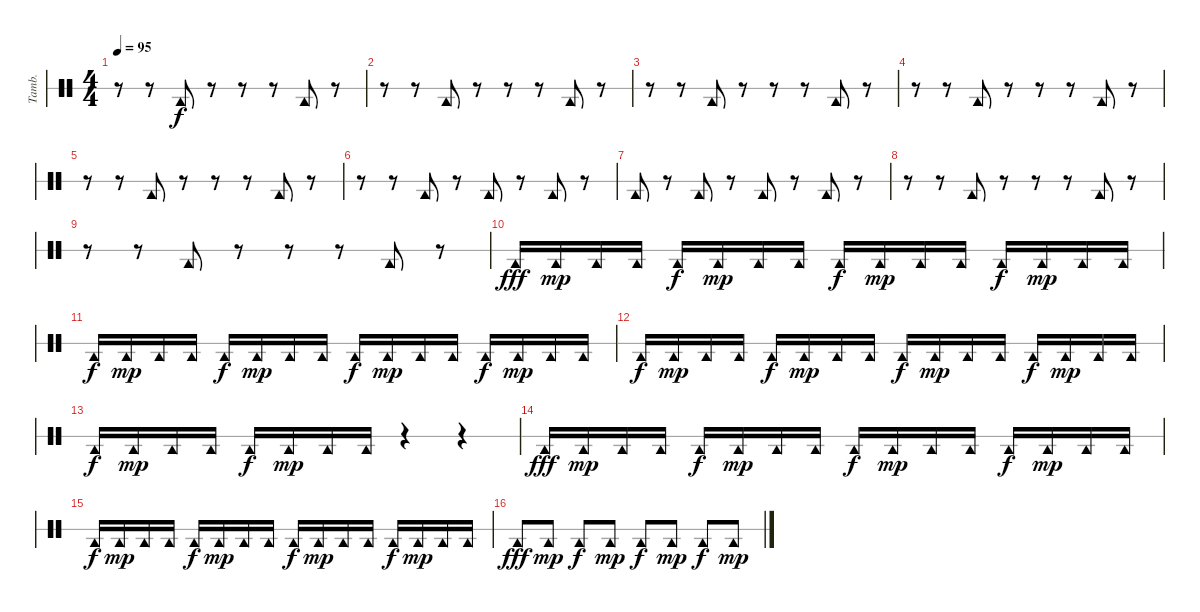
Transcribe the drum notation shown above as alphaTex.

\bracketExtendMode groupsimilarinstruments
\otherSystemsTrackNameOrientation horizontal
\track ("Tambourine" "Tamb.") {instrument percussion}
\staff {score 1}
\articulation defaults
\ts (4 4)
\tempo 95
\clef neutral
\ks c
r.8{dy f} r.8 "Tambourine (hit)".8 r.8 r.8 r.8 "Tambourine (hit)".8 r.8 |
r.8 r.8 "Tambourine (hit)".8 r.8 r.8 r.8 "Tambourine (hit)".8 r.8 |
r.8 r.8 "Tambourine (hit)".8 r.8 r.8 r.8 "Tambourine (hit)".8 r.8 |
r.8 r.8 "Tambourine (hit)".8 r.8 r.8 r.8 "Tambourine (hit)".8 r.8 |
r.8 r.8 "Tambourine (hit)".8 r.8 r.8 r.8 "Tambourine (hit)".8 r.8 |
r.8 r.8 "Tambourine (hit)".8 r.8 "Tambourine (hit)".8 r.8 "Tambourine (hit)".8 r.8 |
"Tambourine (hit)".8 r.8 "Tambourine (hit)".8 r.8 "Tambourine (hit)".8 r.8 "Tambourine (hit)".8 r.8 |
r.8 r.8 "Tambourine (hit)".8 r.8 r.8 r.8 "Tambourine (hit)".8 r.8 |
r.8 r.8 "Tambourine (hit)".8 r.8 r.8 r.8 "Tambourine (hit)".8 r.8 |
"Tambourine (hit)".16{dy fff} "Tambourine (hit)".16{dy mp} "Tambourine (hit)".16 "Tambourine (hit)".16 "Tambourine (hit)".16{dy f} "Tambourine (hit)".16{dy mp} "Tambourine (hit)".16 "Tambourine (hit)".16 "Tambourine (hit)".16{dy f} "Tambourine (hit)".16{dy mp} "Tambourine (hit)".16 "Tambourine (hit)".16 "Tambourine (hit)".16{dy f} "Tambourine (hit)".16{dy mp} "Tambourine (hit)".16 "Tambourine (hit)".16 |
"Tambourine (hit)".16{dy f} "Tambourine (hit)".16{dy mp} "Tambourine (hit)".16 "Tambourine (hit)".16 "Tambourine (hit)".16{dy f} "Tambourine (hit)".16{dy mp} "Tambourine (hit)".16 "Tambourine (hit)".16 "Tambourine (hit)".16{dy f} "Tambourine (hit)".16{dy mp} "Tambourine (hit)".16 "Tambourine (hit)".16 "Tambourine (hit)".16{dy f} "Tambourine (hit)".16{dy mp} "Tambourine (hit)".16 "Tambourine (hit)".16 |
"Tambourine (hit)".16{dy f} "Tambourine (hit)".16{dy mp} "Tambourine (hit)".16 "Tambourine (hit)".16 "Tambourine (hit)".16{dy f} "Tambourine (hit)".16{dy mp} "Tambourine (hit)".16 "Tambourine (hit)".16 "Tambourine (hit)".16{dy f} "Tambourine (hit)".16{dy mp} "Tambourine (hit)".16 "Tambourine (hit)".16 "Tambourine (hit)".16{dy f} "Tambourine (hit)".16{dy mp} "Tambourine (hit)".16 "Tambourine (hit)".16 |
"Tambourine (hit)".16{dy f} "Tambourine (hit)".16{dy mp} "Tambourine (hit)".16 "Tambourine (hit)".16 "Tambourine (hit)".16{dy f} "Tambourine (hit)".16{dy mp} "Tambourine (hit)".16 "Tambourine (hit)".16 r.4 r.4 |
"Tambourine (hit)".16{dy fff} "Tambourine (hit)".16{dy mp} "Tambourine (hit)".16 "Tambourine (hit)".16 "Tambourine (hit)".16{dy f} "Tambourine (hit)".16{dy mp} "Tambourine (hit)".16 "Tambourine (hit)".16 "Tambourine (hit)".16{dy f} "Tambourine (hit)".16{dy mp} "Tambourine (hit)".16 "Tambourine (hit)".16 "Tambourine (hit)".16{dy f} "Tambourine (hit)".16{dy mp} "Tambourine (hit)".16 "Tambourine (hit)".16 |
"Tambourine (hit)".16{dy f} "Tambourine (hit)".16{dy mp} "Tambourine (hit)".16 "Tambourine (hit)".16 "Tambourine (hit)".16{dy f} "Tambourine (hit)".16{dy mp} "Tambourine (hit)".16 "Tambourine (hit)".16 "Tambourine (hit)".16{dy f} "Tambourine (hit)".16{dy mp} "Tambourine (hit)".16 "Tambourine (hit)".16 "Tambourine (hit)".16{dy f} "Tambourine (hit)".16{dy mp} "Tambourine (hit)".16 "Tambourine (hit)".16 |
"Tambourine (hit)".8{dy fff} "Tambourine (hit)".8{dy mp} "Tambourine (hit)".8{dy f} "Tambourine (hit)".8{dy mp} "Tambourine (hit)".8{dy f} "Tambourine (hit)".8{dy mp} "Tambourine (hit)".8{dy f} "Tambourine (hit)".8{dy mp}
